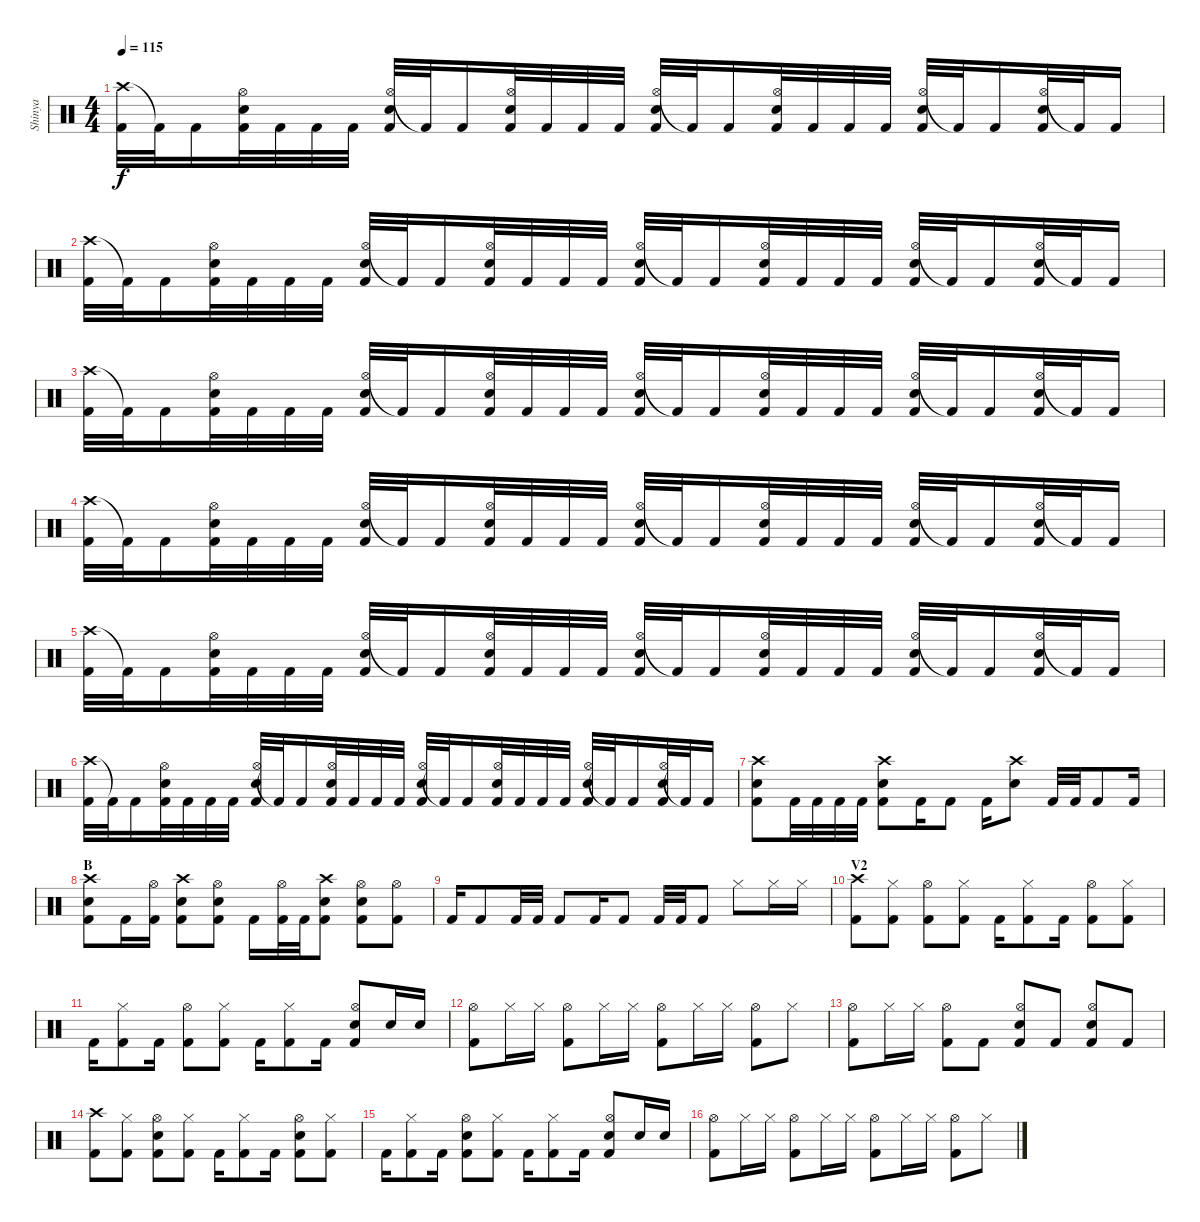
\track ("Shinya" "Shinya") {instrument percussion}
\staff {score}
\articulation defaults
\ts (4 4)
\tempo 115
\clef neutral
\ks c
("Crash high (hit)" "Kick (hit) 2").32{dy f} "Kick (hit) 2"{t}.32 "Kick (hit) 2".16 ("Hi-Hat (open)" "Electric Snare (hit)" "Kick (hit) 2").32 "Kick (hit) 2".32 "Kick (hit) 2".32 "Kick (hit) 2".32 ("Hi-Hat (open)" "Electric Snare (hit)" "Kick (hit) 2").32 "Kick (hit) 2"{t}.32 "Kick (hit) 2".16 ("Hi-Hat (open)" "Electric Snare (hit)" "Kick (hit) 2").32 "Kick (hit) 2".32 "Kick (hit) 2".32 "Kick (hit) 2".32 ("Hi-Hat (open)" "Electric Snare (hit)" "Kick (hit) 2").32 "Kick (hit) 2"{t}.32 "Kick (hit) 2".16 ("Hi-Hat (open)" "Electric Snare (hit)" "Kick (hit) 2").32 "Kick (hit) 2".32 "Kick (hit) 2".32 "Kick (hit) 2".32 ("Hi-Hat (open)" "Electric Snare (hit)" "Kick (hit) 2").32 "Kick (hit) 2"{t}.32 "Kick (hit) 2".16 ("Hi-Hat (open)" "Electric Snare (hit)" "Kick (hit) 2").32 "Kick (hit) 2"{t}.32 "Kick (hit) 2".16 |
("Crash high (hit)" "Kick (hit) 2").32 "Kick (hit) 2"{t}.32 "Kick (hit) 2".16 ("Hi-Hat (open)" "Electric Snare (hit)" "Kick (hit) 2").32 "Kick (hit) 2".32 "Kick (hit) 2".32 "Kick (hit) 2".32 ("Hi-Hat (open)" "Electric Snare (hit)" "Kick (hit) 2").32 "Kick (hit) 2"{t}.32 "Kick (hit) 2".16 ("Hi-Hat (open)" "Electric Snare (hit)" "Kick (hit) 2").32 "Kick (hit) 2".32 "Kick (hit) 2".32 "Kick (hit) 2".32 ("Hi-Hat (open)" "Electric Snare (hit)" "Kick (hit) 2").32 "Kick (hit) 2"{t}.32 "Kick (hit) 2".16 ("Hi-Hat (open)" "Electric Snare (hit)" "Kick (hit) 2").32 "Kick (hit) 2".32 "Kick (hit) 2".32 "Kick (hit) 2".32 ("Hi-Hat (open)" "Electric Snare (hit)" "Kick (hit) 2").32 "Kick (hit) 2"{t}.32 "Kick (hit) 2".16 ("Hi-Hat (open)" "Electric Snare (hit)" "Kick (hit) 2").32 "Kick (hit) 2"{t}.32 "Kick (hit) 2".16 |
("Crash high (hit)" "Kick (hit) 2").32 "Kick (hit) 2"{t}.32 "Kick (hit) 2".16 ("Hi-Hat (open)" "Electric Snare (hit)" "Kick (hit) 2").32 "Kick (hit) 2".32 "Kick (hit) 2".32 "Kick (hit) 2".32 ("Hi-Hat (open)" "Electric Snare (hit)" "Kick (hit) 2").32 "Kick (hit) 2"{t}.32 "Kick (hit) 2".16 ("Hi-Hat (open)" "Electric Snare (hit)" "Kick (hit) 2").32 "Kick (hit) 2".32 "Kick (hit) 2".32 "Kick (hit) 2".32 ("Hi-Hat (open)" "Electric Snare (hit)" "Kick (hit) 2").32 "Kick (hit) 2"{t}.32 "Kick (hit) 2".16 ("Hi-Hat (open)" "Electric Snare (hit)" "Kick (hit) 2").32 "Kick (hit) 2".32 "Kick (hit) 2".32 "Kick (hit) 2".32 ("Hi-Hat (open)" "Electric Snare (hit)" "Kick (hit) 2").32 "Kick (hit) 2"{t}.32 "Kick (hit) 2".16 ("Hi-Hat (open)" "Electric Snare (hit)" "Kick (hit) 2").32 "Kick (hit) 2"{t}.32 "Kick (hit) 2".16 |
("Crash high (hit)" "Kick (hit) 2").32 "Kick (hit) 2"{t}.32 "Kick (hit) 2".16 ("Hi-Hat (open)" "Electric Snare (hit)" "Kick (hit) 2").32 "Kick (hit) 2".32 "Kick (hit) 2".32 "Kick (hit) 2".32 ("Hi-Hat (open)" "Electric Snare (hit)" "Kick (hit) 2").32 "Kick (hit) 2"{t}.32 "Kick (hit) 2".16 ("Hi-Hat (open)" "Electric Snare (hit)" "Kick (hit) 2").32 "Kick (hit) 2".32 "Kick (hit) 2".32 "Kick (hit) 2".32 ("Hi-Hat (open)" "Electric Snare (hit)" "Kick (hit) 2").32 "Kick (hit) 2"{t}.32 "Kick (hit) 2".16 ("Hi-Hat (open)" "Electric Snare (hit)" "Kick (hit) 2").32 "Kick (hit) 2".32 "Kick (hit) 2".32 "Kick (hit) 2".32 ("Hi-Hat (open)" "Electric Snare (hit)" "Kick (hit) 2").32 "Kick (hit) 2"{t}.32 "Kick (hit) 2".16 ("Hi-Hat (open)" "Electric Snare (hit)" "Kick (hit) 2").32 "Kick (hit) 2"{t}.32 "Kick (hit) 2".16 |
("Crash high (hit)" "Kick (hit) 2").32 "Kick (hit) 2"{t}.32 "Kick (hit) 2".16 ("Hi-Hat (open)" "Electric Snare (hit)" "Kick (hit) 2").32 "Kick (hit) 2".32 "Kick (hit) 2".32 "Kick (hit) 2".32 ("Hi-Hat (open)" "Electric Snare (hit)" "Kick (hit) 2").32 "Kick (hit) 2"{t}.32 "Kick (hit) 2".16 ("Hi-Hat (open)" "Electric Snare (hit)" "Kick (hit) 2").32 "Kick (hit) 2".32 "Kick (hit) 2".32 "Kick (hit) 2".32 ("Hi-Hat (open)" "Electric Snare (hit)" "Kick (hit) 2").32 "Kick (hit) 2"{t}.32 "Kick (hit) 2".16 ("Hi-Hat (open)" "Electric Snare (hit)" "Kick (hit) 2").32 "Kick (hit) 2".32 "Kick (hit) 2".32 "Kick (hit) 2".32 ("Hi-Hat (open)" "Electric Snare (hit)" "Kick (hit) 2").32 "Kick (hit) 2"{t}.32 "Kick (hit) 2".16 ("Hi-Hat (open)" "Electric Snare (hit)" "Kick (hit) 2").32 "Kick (hit) 2"{t}.32 "Kick (hit) 2".16 |
("Crash high (hit)" "Kick (hit) 2").32 "Kick (hit) 2"{t}.32 "Kick (hit) 2".16 ("Hi-Hat (open)" "Electric Snare (hit)" "Kick (hit) 2").32 "Kick (hit) 2".32 "Kick (hit) 2".32 "Kick (hit) 2".32 ("Hi-Hat (open)" "Electric Snare (hit)" "Kick (hit) 2").32 "Kick (hit) 2"{t}.32 "Kick (hit) 2".16 ("Hi-Hat (open)" "Electric Snare (hit)" "Kick (hit) 2").32 "Kick (hit) 2".32 "Kick (hit) 2".32 "Kick (hit) 2".32 ("Hi-Hat (open)" "Electric Snare (hit)" "Kick (hit) 2").32 "Kick (hit) 2"{t}.32 "Kick (hit) 2".16 ("Hi-Hat (open)" "Electric Snare (hit)" "Kick (hit) 2").32 "Kick (hit) 2".32 "Kick (hit) 2".32 "Kick (hit) 2".32 ("Hi-Hat (open)" "Electric Snare (hit)" "Kick (hit) 2").32 "Kick (hit) 2"{t}.32 "Kick (hit) 2".16 ("Hi-Hat (open)" "Electric Snare (hit)" "Kick (hit) 2").32 "Kick (hit) 2"{t}.32 "Kick (hit) 2".16 |
("Crash high (hit)" "Electric Snare (hit)" "Kick (hit) 2").8 "Kick (hit) 2".32 "Kick (hit) 2".32 "Kick (hit) 2".32 "Kick (hit) 2".32 ("Crash high (hit)" "Electric Snare (hit)" "Kick (hit) 2").8 "Kick (hit) 2".16 "Kick (hit) 2".8 "Kick (hit) 2".16 ("Crash high (hit)" "Electric Snare (hit)").8 "Kick (hit) 2".32 "Kick (hit) 2".32 "Kick (hit) 2".8 "Kick (hit) 2".16 |
\section ("" "B")
("Crash high (hit)" "Electric Snare (hit)" "Kick (hit) 2").8 "Kick (hit) 2".16 ("Hi-Hat (open)" "Kick (hit) 2").16 ("Crash high (hit)" "Electric Snare (hit)" "Kick (hit) 2").8 ("Hi-Hat (open)" "Electric Snare (hit)" "Kick (hit) 2").8 "Kick (hit) 2".16 ("Hi-Hat (open)" "Kick (hit) 2").32 "Kick (hit) 2".32 ("Crash high (hit)" "Electric Snare (hit)" "Kick (hit) 2").8 ("Hi-Hat (open)" "Electric Snare (hit)" "Kick (hit) 2").8 ("Hi-Hat (open)" "Kick (hit) 2").8 |
"Kick (hit) 2".16 "Kick (hit) 2".8 "Kick (hit) 2".32 "Kick (hit) 2".32 "Kick (hit) 2".8 "Kick (hit) 2".16 "Kick (hit) 2".8 "Kick (hit) 2".32 "Kick (hit) 2".32 "Kick (hit) 2".8 "Hi-Hat (closed)".8 "Hi-Hat (closed)".16 "Hi-Hat (closed)".16 |
\section ("" "V2")
("Crash high (hit)" "Kick (hit) 2").8 ("Hi-Hat (closed)" "Kick (hit) 2").8 ("Hi-Hat (open)" "Kick (hit) 2").8 ("Hi-Hat (closed)" "Kick (hit) 2").8 "Kick (hit) 2".16 ("Hi-Hat (closed)" "Kick (hit) 2").8 "Kick (hit) 2".16 ("Hi-Hat (open)" "Kick (hit) 2").8 ("Hi-Hat (closed)" "Kick (hit) 2").8 |
"Kick (hit) 2".16 ("Hi-Hat (closed)" "Kick (hit) 2").8 "Kick (hit) 2".16 ("Hi-Hat (open)" "Kick (hit) 2").8 ("Hi-Hat (closed)" "Kick (hit) 2").8 "Kick (hit) 2".16 ("Hi-Hat (closed)" "Kick (hit) 2").8 "Kick (hit) 2".16 ("Hi-Hat (open)" "Electric Snare (hit)" "Kick (hit) 2").8 "Electric Snare (hit)".16 "Electric Snare (hit)".16 |
("Hi-Hat (open)" "Kick (hit) 2").8 "Hi-Hat (closed)".16 "Hi-Hat (closed)".16 ("Hi-Hat (open)" "Kick (hit) 2").8 "Hi-Hat (closed)".16 "Hi-Hat (closed)".16 ("Hi-Hat (open)" "Kick (hit) 2").8 "Hi-Hat (closed)".16 "Hi-Hat (closed)".16 ("Hi-Hat (open)" "Kick (hit) 2").8 "Hi-Hat (closed)".8 |
("Hi-Hat (open)" "Kick (hit) 2").8 "Hi-Hat (closed)".16 "Hi-Hat (closed)".16 ("Hi-Hat (open)" "Kick (hit) 2").8 "Kick (hit) 2".8 ("Hi-Hat (open)" "Electric Snare (hit)" "Kick (hit) 2").8 "Kick (hit) 2".8 ("Hi-Hat (open)" "Electric Snare (hit)" "Kick (hit) 2").8 "Kick (hit) 2".8 |
("Crash high (hit)" "Kick (hit) 2").8 ("Hi-Hat (closed)" "Kick (hit) 2").8 ("Hi-Hat (open)" "Electric Snare (hit)" "Kick (hit) 2").8 ("Hi-Hat (closed)" "Kick (hit) 2").8 "Kick (hit) 2".16 ("Hi-Hat (closed)" "Kick (hit) 2").8 "Kick (hit) 2".16 ("Hi-Hat (open)" "Electric Snare (hit)" "Kick (hit) 2").8 ("Hi-Hat (closed)" "Kick (hit) 2").8 |
"Kick (hit) 2".16 ("Hi-Hat (closed)" "Kick (hit) 2").8 "Kick (hit) 2".16 ("Hi-Hat (open)" "Electric Snare (hit)" "Kick (hit) 2").8 ("Hi-Hat (closed)" "Kick (hit) 2").8 "Kick (hit) 2".16 ("Hi-Hat (closed)" "Kick (hit) 2").8 "Kick (hit) 2".16 ("Hi-Hat (open)" "Electric Snare (hit)" "Kick (hit) 2").8 "Electric Snare (hit)".16 "Electric Snare (hit)".16 |
("Hi-Hat (open)" "Kick (hit) 2").8 "Hi-Hat (closed)".16 "Hi-Hat (closed)".16 ("Hi-Hat (open)" "Kick (hit) 2").8 "Hi-Hat (closed)".16 "Hi-Hat (closed)".16 ("Hi-Hat (open)" "Kick (hit) 2").8 "Hi-Hat (closed)".16 "Hi-Hat (closed)".16 ("Hi-Hat (open)" "Kick (hit) 2").8 "Hi-Hat (closed)".8
